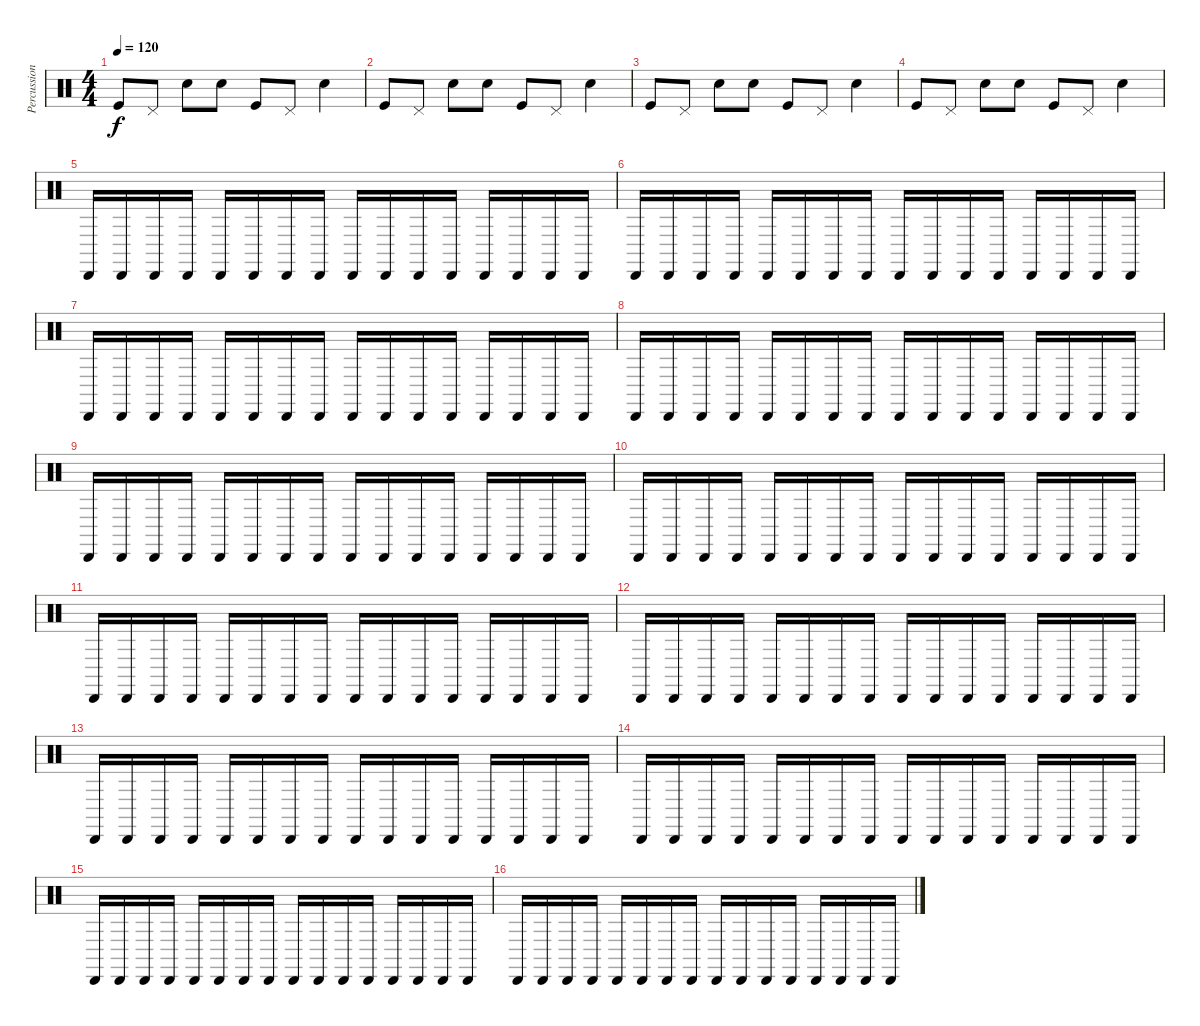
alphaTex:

\track ("Percussion" "Percussion") {instrument percussion}
\staff {score}
\articulation defaults
\ts (4 4)
\tempo 120
\clef neutral
\ks c "Kick (hit)".8{dy f} "Pedal Hi-Hat (hit)".8 "Hand Clap (hit)".8 "Hand Clap (hit)".8 "Kick (hit)".8 "Pedal Hi-Hat (hit)".8 "Hand Clap (hit)".4
|
"Kick (hit)".8 "Pedal Hi-Hat (hit)".8 "Hand Clap (hit)".8 "Hand Clap (hit)".8 "Kick (hit)".8 "Pedal Hi-Hat (hit)".8 "Hand Clap (hit)".4 |
"Kick (hit)".8 "Pedal Hi-Hat (hit)".8 "Hand Clap (hit)".8 "Hand Clap (hit)".8 "Kick (hit)".8 "Pedal Hi-Hat (hit)".8 "Hand Clap (hit)".4 |
"Kick (hit)".8 "Pedal Hi-Hat (hit)".8 "Hand Clap (hit)".8 "Hand Clap (hit)".8 "Kick (hit)".8 "Pedal Hi-Hat (hit)".8 "Hand Clap (hit)".4 |
"Cabasa (hit)".16 "Cabasa (hit)".16 "Cabasa (hit)".16 "Cabasa (hit)".16 "Cabasa (hit)".16 "Cabasa (hit)".16 "Cabasa (hit)".16 "Cabasa (hit)".16 "Cabasa (hit)".16 "Cabasa (hit)".16 "Cabasa (hit)".16 "Cabasa (hit)".16 "Cabasa (hit)".16 "Cabasa (hit)".16 "Cabasa (hit)".16 "Cabasa (hit)".16 |
"Cabasa (hit)".16 "Cabasa (hit)".16 "Cabasa (hit)".16 "Cabasa (hit)".16 "Cabasa (hit)".16 "Cabasa (hit)".16 "Cabasa (hit)".16 "Cabasa (hit)".16 "Cabasa (hit)".16 "Cabasa (hit)".16 "Cabasa (hit)".16 "Cabasa (hit)".16 "Cabasa (hit)".16 "Cabasa (hit)".16 "Cabasa (hit)".16 "Cabasa (hit)".16 |
"Cabasa (hit)".16 "Cabasa (hit)".16 "Cabasa (hit)".16 "Cabasa (hit)".16 "Cabasa (hit)".16 "Cabasa (hit)".16 "Cabasa (hit)".16 "Cabasa (hit)".16 "Cabasa (hit)".16 "Cabasa (hit)".16 "Cabasa (hit)".16 "Cabasa (hit)".16 "Cabasa (hit)".16 "Cabasa (hit)".16 "Cabasa (hit)".16 "Cabasa (hit)".16 |
"Cabasa (hit)".16 "Cabasa (hit)".16 "Cabasa (hit)".16 "Cabasa (hit)".16 "Cabasa (hit)".16 "Cabasa (hit)".16 "Cabasa (hit)".16 "Cabasa (hit)".16 "Cabasa (hit)".16 "Cabasa (hit)".16 "Cabasa (hit)".16 "Cabasa (hit)".16 "Cabasa (hit)".16 "Cabasa (hit)".16 "Cabasa (hit)".16 "Cabasa (hit)".16 |
"Cabasa (hit)".16 "Cabasa (hit)".16 "Cabasa (hit)".16 "Cabasa (hit)".16 "Cabasa (hit)".16 "Cabasa (hit)".16 "Cabasa (hit)".16 "Cabasa (hit)".16 "Cabasa (hit)".16 "Cabasa (hit)".16 "Cabasa (hit)".16 "Cabasa (hit)".16 "Cabasa (hit)".16 "Cabasa (hit)".16 "Cabasa (hit)".16 "Cabasa (hit)".16 |
"Cabasa (hit)".16 "Cabasa (hit)".16 "Cabasa (hit)".16 "Cabasa (hit)".16 "Cabasa (hit)".16 "Cabasa (hit)".16 "Cabasa (hit)".16 "Cabasa (hit)".16 "Cabasa (hit)".16 "Cabasa (hit)".16 "Cabasa (hit)".16 "Cabasa (hit)".16 "Cabasa (hit)".16 "Cabasa (hit)".16 "Cabasa (hit)".16 "Cabasa (hit)".16 |
"Cabasa (hit)".16 "Cabasa (hit)".16 "Cabasa (hit)".16 "Cabasa (hit)".16 "Cabasa (hit)".16 "Cabasa (hit)".16 "Cabasa (hit)".16 "Cabasa (hit)".16 "Cabasa (hit)".16 "Cabasa (hit)".16 "Cabasa (hit)".16 "Cabasa (hit)".16 "Cabasa (hit)".16 "Cabasa (hit)".16 "Cabasa (hit)".16 "Cabasa (hit)".16 |
"Cabasa (hit)".16 "Cabasa (hit)".16 "Cabasa (hit)".16 "Cabasa (hit)".16 "Cabasa (hit)".16 "Cabasa (hit)".16 "Cabasa (hit)".16 "Cabasa (hit)".16 "Cabasa (hit)".16 "Cabasa (hit)".16 "Cabasa (hit)".16 "Cabasa (hit)".16 "Cabasa (hit)".16 "Cabasa (hit)".16 "Cabasa (hit)".16 "Cabasa (hit)".16 |
"Cabasa (hit)".16 "Cabasa (hit)".16 "Cabasa (hit)".16 "Cabasa (hit)".16 "Cabasa (hit)".16 "Cabasa (hit)".16 "Cabasa (hit)".16 "Cabasa (hit)".16 "Cabasa (hit)".16 "Cabasa (hit)".16 "Cabasa (hit)".16 "Cabasa (hit)".16 "Cabasa (hit)".16 "Cabasa (hit)".16 "Cabasa (hit)".16 "Cabasa (hit)".16 |
"Cabasa (hit)".16 "Cabasa (hit)".16 "Cabasa (hit)".16 "Cabasa (hit)".16 "Cabasa (hit)".16 "Cabasa (hit)".16 "Cabasa (hit)".16 "Cabasa (hit)".16 "Cabasa (hit)".16 "Cabasa (hit)".16 "Cabasa (hit)".16 "Cabasa (hit)".16 "Cabasa (hit)".16 "Cabasa (hit)".16 "Cabasa (hit)".16 "Cabasa (hit)".16 |
"Cabasa (hit)".16 "Cabasa (hit)".16 "Cabasa (hit)".16 "Cabasa (hit)".16 "Cabasa (hit)".16 "Cabasa (hit)".16 "Cabasa (hit)".16 "Cabasa (hit)".16 "Cabasa (hit)".16 "Cabasa (hit)".16 "Cabasa (hit)".16 "Cabasa (hit)".16 "Cabasa (hit)".16 "Cabasa (hit)".16 "Cabasa (hit)".16 "Cabasa (hit)".16 |
"Cabasa (hit)".16 "Cabasa (hit)".16 "Cabasa (hit)".16 "Cabasa (hit)".16 "Cabasa (hit)".16 "Cabasa (hit)".16 "Cabasa (hit)".16 "Cabasa (hit)".16 "Cabasa (hit)".16 "Cabasa (hit)".16 "Cabasa (hit)".16 "Cabasa (hit)".16 "Cabasa (hit)".16 "Cabasa (hit)".16 "Cabasa (hit)".16 "Cabasa (hit)".16
